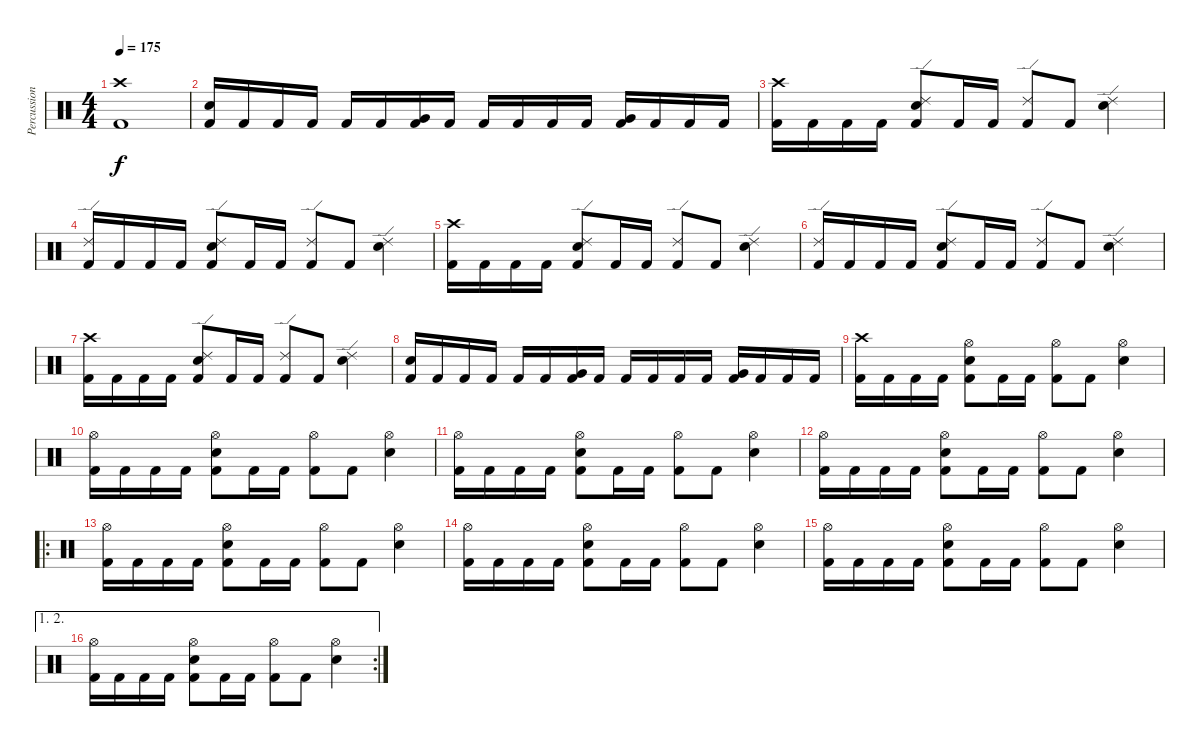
\track ("Percussion" "Percussion") {instrument percussion}
\staff {score}
\articulation defaults
\ts (4 4)
\tempo 175
\clef neutral
\ks c
("Crash high (hit)" "Kick (hit) 2").1{dy f} |
("Snare (hit) 2" "Kick (hit) 2").16 "Kick (hit) 2".16 "Kick (hit) 2".16 "Kick (hit) 2".16 "Kick (hit) 2".16 "Kick (hit) 2".16 ("Very Low Tom (hit)" "Kick (hit) 2").16 "Kick (hit) 2".16 "Kick (hit) 2".16 "Kick (hit) 2".16 "Kick (hit) 2".16 "Kick (hit) 2".16 ("Very Low Tom (hit)" "Kick (hit) 2").16 "Kick (hit) 2".16 "Kick (hit) 2".16 "Kick (hit) 2".16 |
("Crash high (hit)" "Kick (hit) 2").16 "Kick (hit) 2".16 "Kick (hit) 2".16 "Kick (hit) 2".16 ("Ride (edge) 2" "Snare (hit) 2" "Kick (hit) 2").8 "Kick (hit) 2".16 "Kick (hit) 2".16 ("Ride (edge) 2" "Kick (hit) 2").8 "Kick (hit) 2".8 ("Ride (edge) 2" "Snare (hit) 2").4 |
("Ride (edge) 2" "Kick (hit) 2").16 "Kick (hit) 2".16 "Kick (hit) 2".16 "Kick (hit) 2".16 ("Ride (edge) 2" "Snare (hit) 2" "Kick (hit) 2").8 "Kick (hit) 2".16 "Kick (hit) 2".16 ("Ride (edge) 2" "Kick (hit) 2").8 "Kick (hit) 2".8 ("Ride (edge) 2" "Snare (hit) 2").4 |
("Crash high (hit)" "Kick (hit) 2").16 "Kick (hit) 2".16 "Kick (hit) 2".16 "Kick (hit) 2".16 ("Ride (edge) 2" "Snare (hit) 2" "Kick (hit) 2").8 "Kick (hit) 2".16 "Kick (hit) 2".16 ("Ride (edge) 2" "Kick (hit) 2").8 "Kick (hit) 2".8 ("Ride (edge) 2" "Snare (hit) 2").4 |
("Ride (edge) 2" "Kick (hit) 2").16 "Kick (hit) 2".16 "Kick (hit) 2".16 "Kick (hit) 2".16 ("Ride (edge) 2" "Snare (hit) 2" "Kick (hit) 2").8 "Kick (hit) 2".16 "Kick (hit) 2".16 ("Ride (edge) 2" "Kick (hit) 2").8 "Kick (hit) 2".8 ("Ride (edge) 2" "Snare (hit) 2").4 |
("Crash high (hit)" "Kick (hit) 2").16 "Kick (hit) 2".16 "Kick (hit) 2".16 "Kick (hit) 2".16 ("Ride (edge) 2" "Snare (hit) 2" "Kick (hit) 2").8 "Kick (hit) 2".16 "Kick (hit) 2".16 ("Ride (edge) 2" "Kick (hit) 2").8 "Kick (hit) 2".8 ("Ride (edge) 2" "Snare (hit) 2").4 |
("Snare (hit) 2" "Kick (hit) 2").16 "Kick (hit) 2".16 "Kick (hit) 2".16 "Kick (hit) 2".16 "Kick (hit) 2".16 "Kick (hit) 2".16 ("Very Low Tom (hit)" "Kick (hit) 2").16 "Kick (hit) 2".16 "Kick (hit) 2".16 "Kick (hit) 2".16 "Kick (hit) 2".16 "Kick (hit) 2".16 ("Very Low Tom (hit)" "Kick (hit) 2").16 "Kick (hit) 2".16 "Kick (hit) 2".16 "Kick (hit) 2".16 |
("Crash high (hit)" "Kick (hit) 2").16 "Kick (hit) 2".16 "Kick (hit) 2".16 "Kick (hit) 2".16 ("Hi-Hat (open)" "Snare (hit) 2" "Kick (hit) 2").8 "Kick (hit) 2".16 "Kick (hit) 2".16 ("Hi-Hat (open)" "Kick (hit) 2").8 "Kick (hit) 2".8 ("Hi-Hat (open)" "Snare (hit) 2").4 |
("Hi-Hat (open)" "Kick (hit) 2").16 "Kick (hit) 2".16 "Kick (hit) 2".16 "Kick (hit) 2".16 ("Hi-Hat (open)" "Snare (hit) 2" "Kick (hit) 2").8 "Kick (hit) 2".16 "Kick (hit) 2".16 ("Hi-Hat (open)" "Kick (hit) 2").8 "Kick (hit) 2".8 ("Hi-Hat (open)" "Snare (hit) 2").4 |
("Hi-Hat (open)" "Kick (hit) 2").16 "Kick (hit) 2".16 "Kick (hit) 2".16 "Kick (hit) 2".16 ("Hi-Hat (open)" "Snare (hit) 2" "Kick (hit) 2").8 "Kick (hit) 2".16 "Kick (hit) 2".16 ("Hi-Hat (open)" "Kick (hit) 2").8 "Kick (hit) 2".8 ("Hi-Hat (open)" "Snare (hit) 2").4 |
("Hi-Hat (open)" "Kick (hit) 2").16 "Kick (hit) 2".16 "Kick (hit) 2".16 "Kick (hit) 2".16 ("Hi-Hat (open)" "Snare (hit) 2" "Kick (hit) 2").8 "Kick (hit) 2".16 "Kick (hit) 2".16 ("Hi-Hat (open)" "Kick (hit) 2").8 "Kick (hit) 2".8 ("Hi-Hat (open)" "Snare (hit) 2").4 |
\ro
("Hi-Hat (open)" "Kick (hit) 2").16 "Kick (hit) 2".16 "Kick (hit) 2".16 "Kick (hit) 2".16 ("Hi-Hat (open)" "Snare (hit) 2" "Kick (hit) 2").8 "Kick (hit) 2".16 "Kick (hit) 2".16 ("Hi-Hat (open)" "Kick (hit) 2").8 "Kick (hit) 2".8 ("Hi-Hat (open)" "Snare (hit) 2").4 |
("Hi-Hat (open)" "Kick (hit) 2").16 "Kick (hit) 2".16 "Kick (hit) 2".16 "Kick (hit) 2".16 ("Hi-Hat (open)" "Snare (hit) 2" "Kick (hit) 2").8 "Kick (hit) 2".16 "Kick (hit) 2".16 ("Hi-Hat (open)" "Kick (hit) 2").8 "Kick (hit) 2".8 ("Hi-Hat (open)" "Snare (hit) 2").4 |
("Hi-Hat (open)" "Kick (hit) 2").16 "Kick (hit) 2".16 "Kick (hit) 2".16 "Kick (hit) 2".16 ("Hi-Hat (open)" "Snare (hit) 2" "Kick (hit) 2").8 "Kick (hit) 2".16 "Kick (hit) 2".16 ("Hi-Hat (open)" "Kick (hit) 2").8 "Kick (hit) 2".8 ("Hi-Hat (open)" "Snare (hit) 2").4 |
\ae (1 2)
\rc 2
("Hi-Hat (open)" "Kick (hit) 2").16 "Kick (hit) 2".16 "Kick (hit) 2".16 "Kick (hit) 2".16 ("Hi-Hat (open)" "Snare (hit) 2" "Kick (hit) 2").8 "Kick (hit) 2".16 "Kick (hit) 2".16 ("Hi-Hat (open)" "Kick (hit) 2").8 "Kick (hit) 2".8 ("Hi-Hat (open)" "Snare (hit) 2").4
